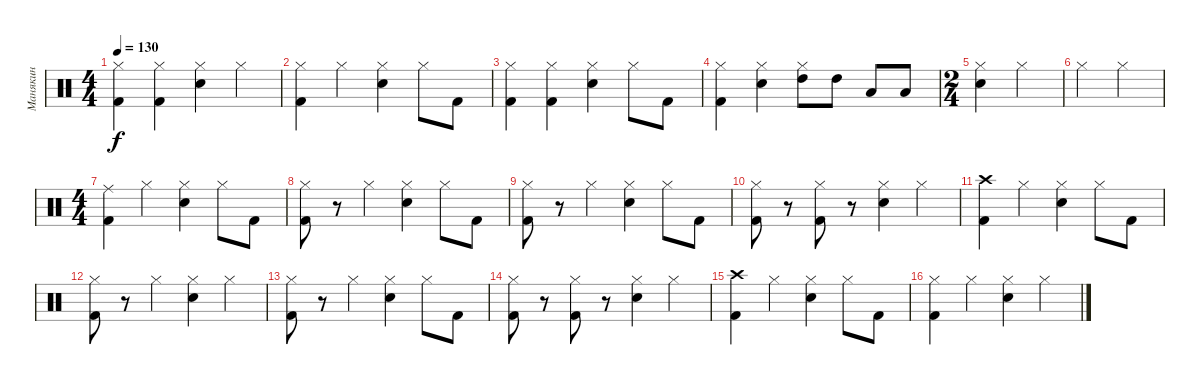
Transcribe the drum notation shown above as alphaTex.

\track ("Манякин" "Манякин") {instrument percussion}
\staff {score}
\articulation defaults
\ts (4 4)
\tempo 130
\clef neutral
\ks c
("Hi-Hat (closed)" "Kick (hit) 2").4{dy f} ("Hi-Hat (closed)" "Kick (hit) 2").4 ("Hi-Hat (closed)" "Electric Snare (hit)").4 "Hi-Hat (closed)".4 |
("Hi-Hat (closed)" "Kick (hit) 2").4 "Hi-Hat (closed)".4 ("Hi-Hat (closed)" "Electric Snare (hit)").4 "Hi-Hat (closed)".8 "Kick (hit) 2".8 |
("Hi-Hat (closed)" "Kick (hit) 2").4 ("Hi-Hat (closed)" "Kick (hit) 2").4 ("Hi-Hat (closed)" "Electric Snare (hit)").4 "Hi-Hat (closed)".8 "Kick (hit) 2".8 |
("Hi-Hat (closed)" "Kick (hit) 2").4 ("Hi-Hat (closed)" "Electric Snare (hit)").4 ("Hi-Hat (closed)" "High Tom (hit)").8 "High Tom (hit)".8 "Low Tom (hit)".8 "Low Tom (hit)".8 |
\ts (2 4)
("Hi-Hat (closed)" "Electric Snare (hit)").4 "Hi-Hat (closed)".4 |
"Hi-Hat (closed)".4 "Hi-Hat (closed)".4 |
\ts (4 4)
("Ride (middle)" "Kick (hit) 2").4 "Hi-Hat (closed)".4 ("Hi-Hat (closed)" "Electric Snare (hit)").4 "Hi-Hat (closed)".8 "Kick (hit) 2".8 |
("Hi-Hat (closed)" "Kick (hit) 2").8 r.8 "Hi-Hat (closed)".4 ("Hi-Hat (closed)" "Electric Snare (hit)").4 "Hi-Hat (closed)".8 "Kick (hit) 2".8 |
("Hi-Hat (closed)" "Kick (hit) 2").8 r.8 "Hi-Hat (closed)".4 ("Hi-Hat (closed)" "Electric Snare (hit)").4 "Hi-Hat (closed)".8 "Kick (hit) 2".8 |
("Hi-Hat (closed)" "Kick (hit) 2").8 r.8 ("Hi-Hat (closed)" "Kick (hit) 2").8 r.8 ("Hi-Hat (closed)" "Electric Snare (hit)").4 "Hi-Hat (closed)".4 |
("Crash high (hit)" "Kick (hit) 2").4 "Hi-Hat (closed)".4 ("Hi-Hat (closed)" "Electric Snare (hit)").4 "Hi-Hat (closed)".8 "Kick (hit) 2".8 |
("Hi-Hat (closed)" "Kick (hit) 2").8 r.8 "Hi-Hat (closed)".4 ("Hi-Hat (closed)" "Electric Snare (hit)").4 "Hi-Hat (closed)".4 |
("Hi-Hat (closed)" "Kick (hit) 2").8 r.8 "Hi-Hat (closed)".4 ("Hi-Hat (closed)" "Electric Snare (hit)").4 "Hi-Hat (closed)".8 "Kick (hit) 2".8 |
("Hi-Hat (closed)" "Kick (hit) 2").8 r.8 ("Hi-Hat (closed)" "Kick (hit) 2").8 r.8 ("Hi-Hat (closed)" "Electric Snare (hit)").4 "Hi-Hat (closed)".4 |
("Crash high (hit)" "Kick (hit) 2").4 "Hi-Hat (closed)".4 ("Hi-Hat (closed)" "Electric Snare (hit)").4 "Hi-Hat (closed)".8 "Kick (hit) 2".8 |
("Hi-Hat (closed)" "Kick (hit) 2").4 "Hi-Hat (closed)".4 ("Hi-Hat (closed)" "Electric Snare (hit)").4 "Hi-Hat (closed)".4
